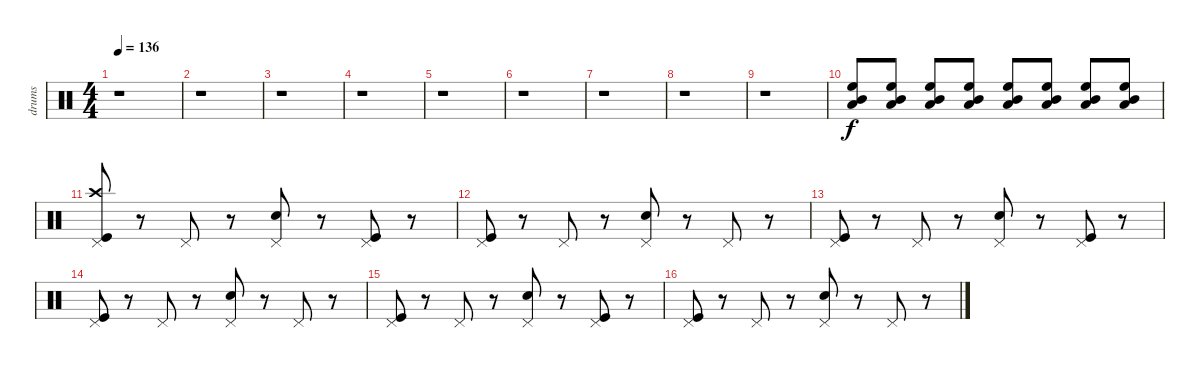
\track ("drums" "drums") {instrument percussion}
\staff {score}
\articulation defaults
\ts (4 4)
\tempo 136
\clef neutral
\ks c
r.1{dy f} |
r.1 |
r.1 |
r.1 |
r.1 |
r.1 |
r.1 |
r.1 |
r.1 |
("Low Tom (hit)" "High Floor Tom (hit)" "Mid Tom (hit)").8 ("Low Tom (hit)" "High Floor Tom (hit)" "Mid Tom (hit)").8 ("Low Tom (hit)" "High Floor Tom (hit)" "Mid Tom (hit)").8 ("Low Tom (hit)" "High Floor Tom (hit)" "Mid Tom (hit)").8 ("Low Tom (hit)" "High Floor Tom (hit)" "Mid Tom (hit)").8 ("Low Tom (hit)" "High Floor Tom (hit)" "Mid Tom (hit)").8 ("Low Tom (hit)" "High Floor Tom (hit)" "Mid Tom (hit)").8 ("Low Tom (hit)" "High Floor Tom (hit)" "Mid Tom (hit)").8 |
("Kick (hit)" "Crash high (hit)" "Pedal Hi-Hat (hit)").8 r.8 "Pedal Hi-Hat (hit)".8 r.8 ("Snare (hit) 2" "Pedal Hi-Hat (hit)").8 r.8 ("Kick (hit)" "Pedal Hi-Hat (hit)").8 r.8 |
("Kick (hit)" "Pedal Hi-Hat (hit)").8 r.8 "Pedal Hi-Hat (hit)".8 r.8 ("Snare (hit) 2" "Pedal Hi-Hat (hit)").8 r.8 "Pedal Hi-Hat (hit)".8 r.8 |
("Kick (hit)" "Pedal Hi-Hat (hit)").8 r.8 "Pedal Hi-Hat (hit)".8 r.8 ("Snare (hit) 2" "Pedal Hi-Hat (hit)").8 r.8 ("Kick (hit)" "Pedal Hi-Hat (hit)").8 r.8 |
("Kick (hit)" "Pedal Hi-Hat (hit)").8 r.8 "Pedal Hi-Hat (hit)".8 r.8 ("Snare (hit) 2" "Pedal Hi-Hat (hit)").8 r.8 "Pedal Hi-Hat (hit)".8 r.8 |
("Kick (hit)" "Pedal Hi-Hat (hit)").8 r.8 "Pedal Hi-Hat (hit)".8 r.8 ("Snare (hit) 2" "Pedal Hi-Hat (hit)").8 r.8 ("Kick (hit)" "Pedal Hi-Hat (hit)").8 r.8 |
("Kick (hit)" "Pedal Hi-Hat (hit)").8 r.8 "Pedal Hi-Hat (hit)".8 r.8 ("Snare (hit) 2" "Pedal Hi-Hat (hit)").8 r.8 "Pedal Hi-Hat (hit)".8 r.8
